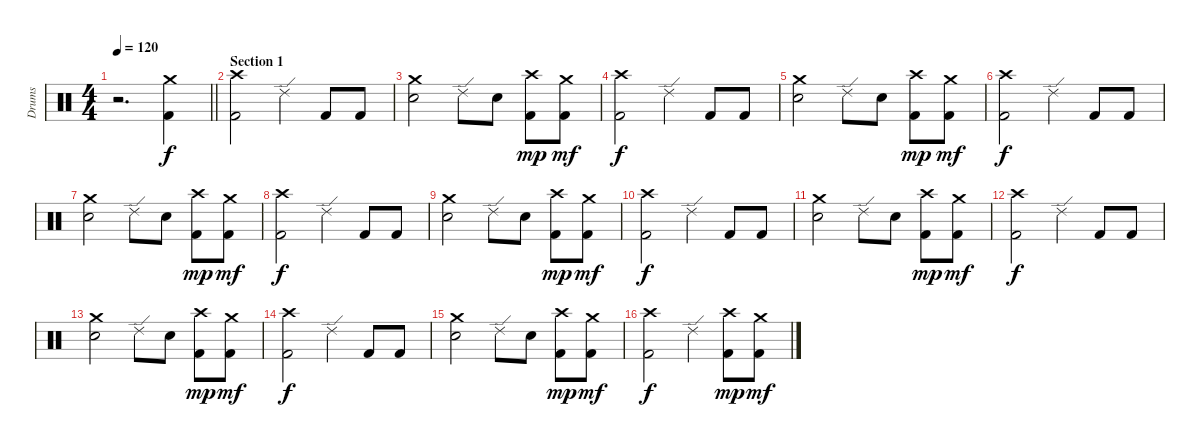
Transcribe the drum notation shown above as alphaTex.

\track ("Drums" "Drums") {instrument percussion}
\staff {score}
\articulation defaults
\ts (4 4)
\tempo 120
\clef neutral
\barLineRight lightlight
\ks c
r.2{d dy f} ("Crash medium (hit)" "Kick (hit) 2").4 |
\section ("" "Section 1")
("Crash high (hit)" "Kick (hit) 2").2 "Ride (edge) 2".4 "Kick (hit) 2".8 "Kick (hit) 2".8 |
("Crash medium (hit)" "Electric Snare (hit)").2 "Ride (edge) 2".8 "Electric Snare (hit)".8 ("Crash high (hit)" "Kick (hit) 2").8{dy mp} ("Crash medium (hit)" "Kick (hit) 2").8{dy mf} |
("Crash high (hit)" "Kick (hit) 2").2{dy f} "Ride (edge) 2".4 "Kick (hit) 2".8 "Kick (hit) 2".8 |
("Crash medium (hit)" "Electric Snare (hit)").2 "Ride (edge) 2".8 "Electric Snare (hit)".8 ("Crash high (hit)" "Kick (hit) 2").8{dy mp} ("Crash medium (hit)" "Kick (hit) 2").8{dy mf} |
("Crash high (hit)" "Kick (hit) 2").2{dy f} "Ride (edge) 2".4 "Kick (hit) 2".8 "Kick (hit) 2".8 |
("Crash medium (hit)" "Electric Snare (hit)").2 "Ride (edge) 2".8 "Electric Snare (hit)".8 ("Crash high (hit)" "Kick (hit) 2").8{dy mp} ("Crash medium (hit)" "Kick (hit) 2").8{dy mf} |
("Crash high (hit)" "Kick (hit) 2").2{dy f} "Ride (edge) 2".4 "Kick (hit) 2".8 "Kick (hit) 2".8 |
("Crash medium (hit)" "Electric Snare (hit)").2 "Ride (edge) 2".8 "Electric Snare (hit)".8 ("Crash high (hit)" "Kick (hit) 2").8{dy mp} ("Crash medium (hit)" "Kick (hit) 2").8{dy mf} |
("Crash high (hit)" "Kick (hit) 2").2{dy f} "Ride (edge) 2".4 "Kick (hit) 2".8 "Kick (hit) 2".8 |
("Crash medium (hit)" "Electric Snare (hit)").2 "Ride (edge) 2".8 "Electric Snare (hit)".8 ("Crash high (hit)" "Kick (hit) 2").8{dy mp} ("Crash medium (hit)" "Kick (hit) 2").8{dy mf} |
("Crash high (hit)" "Kick (hit) 2").2{dy f} "Ride (edge) 2".4 "Kick (hit) 2".8 "Kick (hit) 2".8 |
("Crash medium (hit)" "Electric Snare (hit)").2 "Ride (edge) 2".8 "Electric Snare (hit)".8 ("Crash high (hit)" "Kick (hit) 2").8{dy mp} ("Crash medium (hit)" "Kick (hit) 2").8{dy mf} |
("Crash high (hit)" "Kick (hit) 2").2{dy f} "Ride (edge) 2".4 "Kick (hit) 2".8 "Kick (hit) 2".8 |
("Crash medium (hit)" "Electric Snare (hit)").2 "Ride (edge) 2".8 "Electric Snare (hit)".8 ("Crash high (hit)" "Kick (hit) 2").8{dy mp} ("Crash medium (hit)" "Kick (hit) 2").8{dy mf} |
("Crash high (hit)" "Kick (hit) 2").2{dy f} "Ride (edge) 2".4 ("Crash high (hit)" "Kick (hit) 2").8{dy mp} ("Crash medium (hit)" "Kick (hit) 2").8{dy mf}
